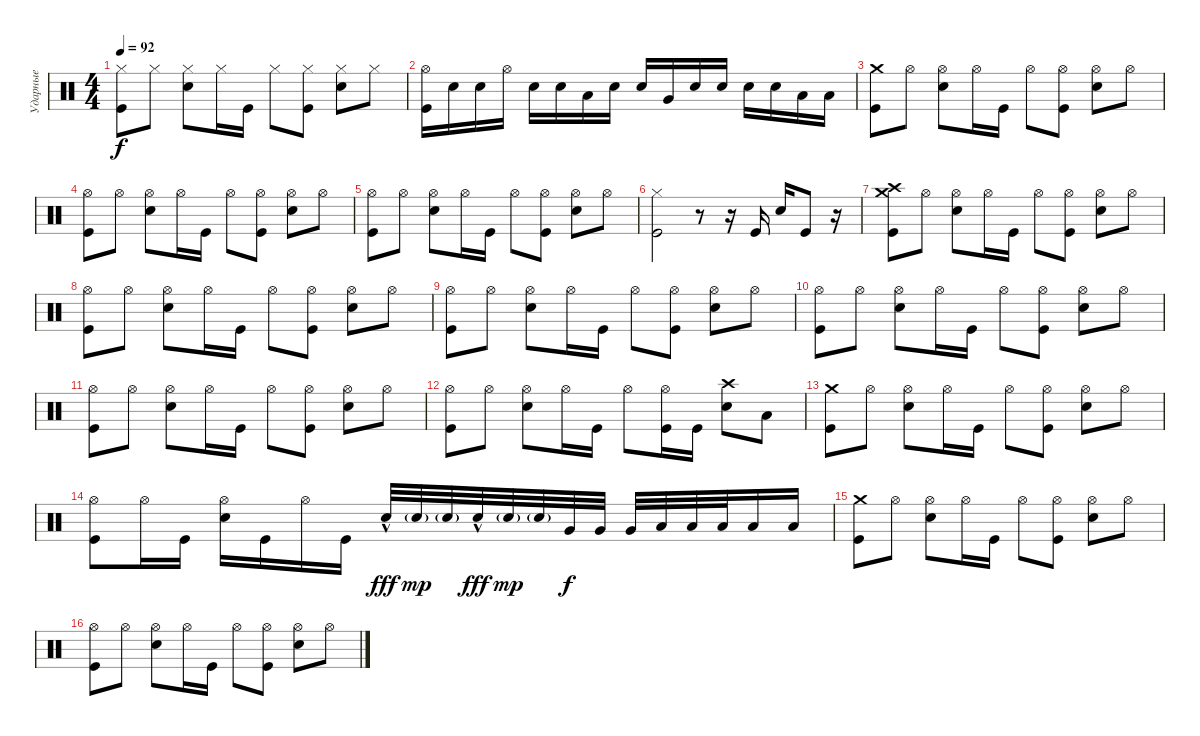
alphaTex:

\track ("Ударные" "Ударные") {instrument percussion}
\staff {score}
\articulation defaults
\ts (4 4)
\tempo 92
\clef neutral
\ks c
("Kick (hit)" "Hi-Hat (closed)").8{dy f} "Hi-Hat (closed)".8 ("Hi-Hat (closed)" "Snare (hit) 2").8 "Hi-Hat (closed)".16 "Kick (hit)".16 "Hi-Hat (closed)".8 ("Kick (hit)" "Hi-Hat (closed)").8 ("Hi-Hat (closed)" "Snare (hit) 2").8 "Hi-Hat (closed)".8 |
("Kick (hit)" "Hi-Hat (open)").16 "Snare (hit) 2".16 "Snare (hit) 2".16 "Hi-Hat (open)".16 "Snare (hit) 2".16 "Snare (hit) 2".16 "Low Floor Tom (hit)".16 "Snare (hit) 2".16 "Snare (hit) 2".16 "Very Low Tom (hit)".16 "Snare (hit) 2".16 "Snare (hit) 2".16 "Snare (hit) 2".16 "Snare (hit) 2".16 "Low Floor Tom (hit)".16 "Low Tom (hit)".16 |
("Kick (hit)" "Crash medium (hit)").8 "Hi-Hat (open)".8 ("Hi-Hat (open)" "Snare (hit) 2").8 "Hi-Hat (open)".16 "Kick (hit)".16 "Hi-Hat (open)".8 ("Kick (hit)" "Hi-Hat (open)").8 ("Hi-Hat (open)" "Snare (hit) 2").8 "Hi-Hat (open)".8 |
("Kick (hit)" "Hi-Hat (open)").8 "Hi-Hat (open)".8 ("Hi-Hat (open)" "Snare (hit) 2").8 "Hi-Hat (open)".16 "Kick (hit)".16 "Hi-Hat (open)".8 ("Kick (hit)" "Hi-Hat (open)").8 ("Hi-Hat (open)" "Snare (hit) 2").8 "Hi-Hat (open)".8 |
("Kick (hit)" "Hi-Hat (open)").8 "Hi-Hat (open)".8 ("Hi-Hat (open)" "Snare (hit) 2").8 "Hi-Hat (open)".16 "Kick (hit)".16 "Hi-Hat (open)".8 ("Kick (hit)" "Hi-Hat (open)").8 ("Hi-Hat (open)" "Snare (hit) 2").8 "Hi-Hat (open)".8 |
("Kick (hit)" "Hi-Hat (closed)").2 r.8 r.16 "Kick (hit)".16 "Snare (hit) 2".16 "Kick (hit)".8 r.16 |
("Kick (hit)" "Crash high (hit)" "Crash medium (hit)").8 "Hi-Hat (open)".8 ("Hi-Hat (open)" "Snare (hit) 2").8 "Hi-Hat (open)".16 "Kick (hit)".16 "Hi-Hat (open)".8 ("Kick (hit)" "Hi-Hat (open)").8 ("Hi-Hat (open)" "Snare (hit) 2").8 "Hi-Hat (open)".8 |
("Kick (hit)" "Hi-Hat (open)").8 "Hi-Hat (open)".8 ("Hi-Hat (open)" "Snare (hit) 2").8 "Hi-Hat (open)".16 "Kick (hit)".16 "Hi-Hat (open)".8 ("Kick (hit)" "Hi-Hat (open)").8 ("Hi-Hat (open)" "Snare (hit) 2").8 "Hi-Hat (open)".8 |
("Kick (hit)" "Hi-Hat (open)").8 "Hi-Hat (open)".8 ("Hi-Hat (open)" "Snare (hit) 2").8 "Hi-Hat (open)".16 "Kick (hit)".16 "Hi-Hat (open)".8 ("Kick (hit)" "Hi-Hat (open)").8 ("Hi-Hat (open)" "Snare (hit) 2").8 "Hi-Hat (open)".8 |
("Kick (hit)" "Hi-Hat (open)").8 "Hi-Hat (open)".8 ("Hi-Hat (open)" "Snare (hit) 2").8 "Hi-Hat (open)".16 "Kick (hit)".16 "Hi-Hat (open)".8 ("Kick (hit)" "Hi-Hat (open)").8 ("Hi-Hat (open)" "Snare (hit) 2").8 "Hi-Hat (open)".8 |
("Kick (hit)" "Hi-Hat (open)").8 "Hi-Hat (open)".8 ("Hi-Hat (open)" "Snare (hit) 2").8 "Hi-Hat (open)".16 "Kick (hit)".16 "Hi-Hat (open)".8 ("Kick (hit)" "Hi-Hat (open)").8 ("Hi-Hat (open)" "Snare (hit) 2").8 "Hi-Hat (open)".8 |
("Kick (hit)" "Hi-Hat (open)").8 "Hi-Hat (open)".8 ("Hi-Hat (open)" "Snare (hit) 2").8 "Hi-Hat (open)".16 "Kick (hit)".16 "Hi-Hat (open)".8 ("Kick (hit)" "Hi-Hat (open)").16 "Kick (hit)".16 ("Crash high (hit)" "Snare (hit) 2").8 "Low Tom (hit)".8 |
("Kick (hit)" "Crash medium (hit)").8 "Hi-Hat (open)".8 ("Hi-Hat (open)" "Snare (hit) 2").8 "Hi-Hat (open)".16 "Kick (hit)".16 "Hi-Hat (open)".8 ("Kick (hit)" "Hi-Hat (open)").8 ("Hi-Hat (open)" "Snare (hit) 2").8 "Hi-Hat (open)".8 |
("Kick (hit)" "Hi-Hat (open)").8 "Hi-Hat (open)".16 "Kick (hit)".16 ("Hi-Hat (open)" "Snare (hit) 2").16 "Kick (hit)".16 "Hi-Hat (open)".16 "Kick (hit)".16 "Snare (hit) 2"{hac}.32{dy fff} "Snare (hit) 2"{g}.32{dy mp} "Snare (hit) 2"{g}.32 "Snare (hit) 2"{hac}.32{dy fff} "Snare (hit) 2"{g}.32{dy mp} "Snare (hit) 2"{g}.32 "Very Low Tom (hit)".32{dy f} "Very Low Tom (hit)".32 "Very Low Tom (hit)".32 "Low Floor Tom (hit)".32 "Low Floor Tom (hit)".32 "Low Tom (hit)".32 "Low Tom (hit)".16 "Low Tom (hit)".16 |
("Kick (hit)" "Crash medium (hit)").8 "Hi-Hat (open)".8 ("Hi-Hat (open)" "Snare (hit) 2").8 "Hi-Hat (open)".16 "Kick (hit)".16 "Hi-Hat (open)".8 ("Kick (hit)" "Hi-Hat (open)").8 ("Hi-Hat (open)" "Snare (hit) 2").8 "Hi-Hat (open)".8 |
("Kick (hit)" "Hi-Hat (open)").8 "Hi-Hat (open)".8 ("Hi-Hat (open)" "Snare (hit) 2").8 "Hi-Hat (open)".16 "Kick (hit)".16 "Hi-Hat (open)".8 ("Kick (hit)" "Hi-Hat (open)").8 ("Hi-Hat (open)" "Snare (hit) 2").8 "Hi-Hat (open)".8
